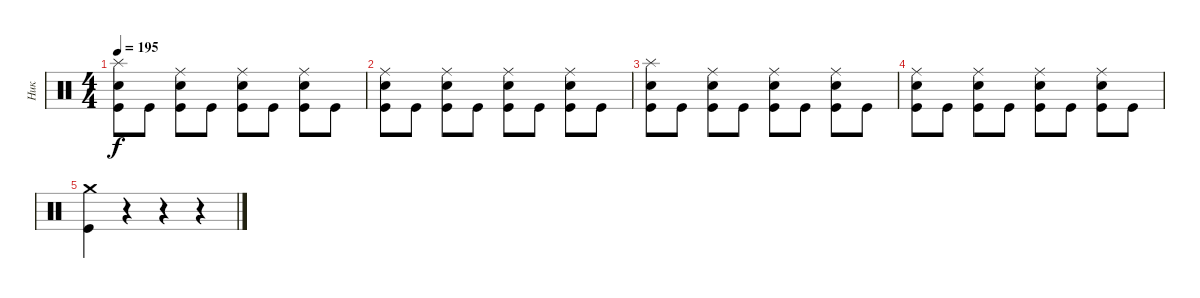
\track ("Ник" "Ник") {instrument percussion}
\staff {score}
\articulation defaults
\ts (4 4)
\tempo 195
\clef neutral
\ks c
("Splash (hit)" "Snare (hit) 2" "Kick (hit)").8{dy f} "Kick (hit)".8 ("Ride (middle)" "Snare (hit) 2" "Kick (hit)").8 "Kick (hit)".8 ("Ride (middle)" "Snare (hit) 2" "Kick (hit)").8 "Kick (hit)".8 ("Ride (middle)" "Snare (hit) 2" "Kick (hit)").8 "Kick (hit)".8 |
("Ride (middle)" "Snare (hit) 2" "Kick (hit)").8 "Kick (hit)".8 ("Ride (middle)" "Snare (hit) 2" "Kick (hit)").8 "Kick (hit)".8 ("Ride (middle)" "Snare (hit) 2" "Kick (hit)").8 "Kick (hit)".8 ("Ride (middle)" "Snare (hit) 2" "Kick (hit)").8 "Kick (hit)".8 |
("Splash (hit)" "Snare (hit) 2" "Kick (hit)").8 "Kick (hit)".8 ("Ride (middle)" "Snare (hit) 2" "Kick (hit)").8 "Kick (hit)".8 ("Ride (middle)" "Snare (hit) 2" "Kick (hit)").8 "Kick (hit)".8 ("Ride (middle)" "Snare (hit) 2" "Kick (hit)").8 "Kick (hit)".8 |
("Ride (middle)" "Snare (hit) 2" "Kick (hit)").8 "Kick (hit)".8 ("Ride (middle)" "Snare (hit) 2" "Kick (hit)").8 "Kick (hit)".8 ("Ride (middle)" "Snare (hit) 2" "Kick (hit)").8 "Kick (hit)".8 ("Ride (middle)" "Snare (hit) 2" "Kick (hit)").8 "Kick (hit)".8 |
("Crash medium (hit)" "Kick (hit)").4 r.4 r.4 r.4
